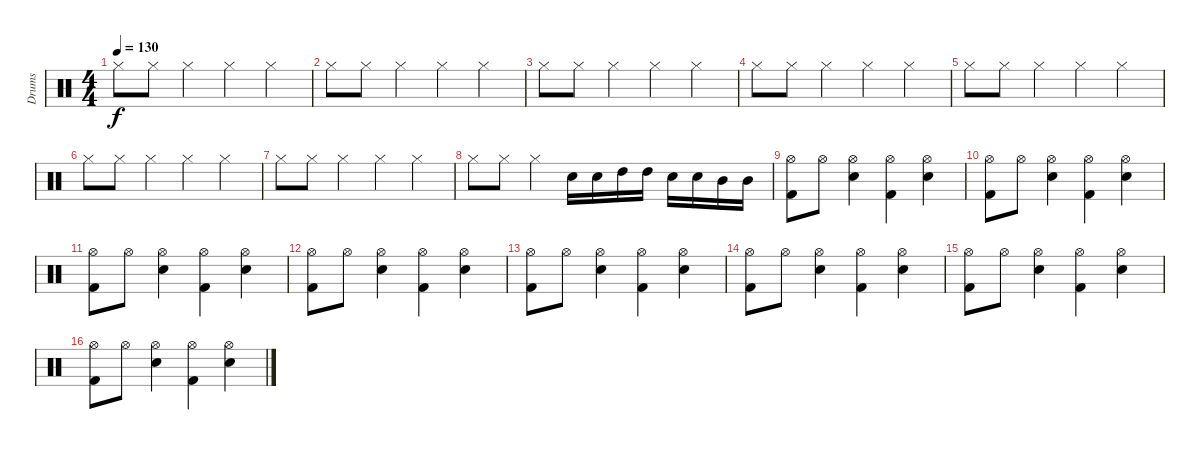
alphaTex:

\track ("Drums" "Drums") {instrument percussion}
\staff {score}
\articulation defaults
\ts (4 4)
\tempo 130
\clef neutral
\ks c "Hi-Hat (closed)".8{dy f} "Hi-Hat (closed)".8 "Hi-Hat (closed)".4 "Hi-Hat (closed)".4 "Hi-Hat (closed)".4
|
"Hi-Hat (closed)".8 "Hi-Hat (closed)".8 "Hi-Hat (closed)".4 "Hi-Hat (closed)".4 "Hi-Hat (closed)".4 |
"Hi-Hat (closed)".8 "Hi-Hat (closed)".8 "Hi-Hat (closed)".4 "Hi-Hat (closed)".4 "Hi-Hat (closed)".4 |
"Hi-Hat (closed)".8 "Hi-Hat (closed)".8 "Hi-Hat (closed)".4 "Hi-Hat (closed)".4 "Hi-Hat (closed)".4 |
"Hi-Hat (closed)".8 "Hi-Hat (closed)".8 "Hi-Hat (closed)".4 "Hi-Hat (closed)".4 "Hi-Hat (closed)".4 |
"Hi-Hat (closed)".8 "Hi-Hat (closed)".8 "Hi-Hat (closed)".4 "Hi-Hat (closed)".4 "Hi-Hat (closed)".4 |
"Hi-Hat (closed)".8 "Hi-Hat (closed)".8 "Hi-Hat (closed)".4 "Hi-Hat (closed)".4 "Hi-Hat (closed)".4 |
"Hi-Hat (closed)".8 "Hi-Hat (closed)".8 "Hi-Hat (closed)".4 "Snare (hit) 2".16 "Snare (hit) 2".16 "High Tom (hit)".16 "High Tom (hit)".16 "Snare (hit) 2".16 "Snare (hit) 2".16 "Mid Tom (hit)".16 "Mid Tom (hit)".16 |
("Hi-Hat (open)" "Kick (hit) 2").8 "Hi-Hat (open)".8 ("Hi-Hat (open)" "Snare (hit) 2").4 ("Hi-Hat (open)" "Kick (hit) 2").4 ("Hi-Hat (open)" "Snare (hit) 2").4 |
("Hi-Hat (open)" "Kick (hit) 2").8 "Hi-Hat (open)".8 ("Hi-Hat (open)" "Snare (hit) 2").4 ("Hi-Hat (open)" "Kick (hit) 2").4 ("Hi-Hat (open)" "Snare (hit) 2").4 |
("Hi-Hat (open)" "Kick (hit) 2").8 "Hi-Hat (open)".8 ("Hi-Hat (open)" "Snare (hit) 2").4 ("Hi-Hat (open)" "Kick (hit) 2").4 ("Hi-Hat (open)" "Snare (hit) 2").4 |
("Hi-Hat (open)" "Kick (hit) 2").8 "Hi-Hat (open)".8 ("Hi-Hat (open)" "Snare (hit) 2").4 ("Hi-Hat (open)" "Kick (hit) 2").4 ("Hi-Hat (open)" "Snare (hit) 2").4 |
("Hi-Hat (open)" "Kick (hit) 2").8 "Hi-Hat (open)".8 ("Hi-Hat (open)" "Snare (hit) 2").4 ("Hi-Hat (open)" "Kick (hit) 2").4 ("Hi-Hat (open)" "Snare (hit) 2").4 |
("Hi-Hat (open)" "Kick (hit) 2").8 "Hi-Hat (open)".8 ("Hi-Hat (open)" "Snare (hit) 2").4 ("Hi-Hat (open)" "Kick (hit) 2").4 ("Hi-Hat (open)" "Snare (hit) 2").4 |
("Hi-Hat (open)" "Kick (hit) 2").8 "Hi-Hat (open)".8 ("Hi-Hat (open)" "Snare (hit) 2").4 ("Hi-Hat (open)" "Kick (hit) 2").4 ("Hi-Hat (open)" "Snare (hit) 2").4 |
("Hi-Hat (open)" "Kick (hit) 2").8 "Hi-Hat (open)".8 ("Hi-Hat (open)" "Snare (hit) 2").4 ("Hi-Hat (open)" "Kick (hit) 2").4 ("Hi-Hat (open)" "Snare (hit) 2").4
